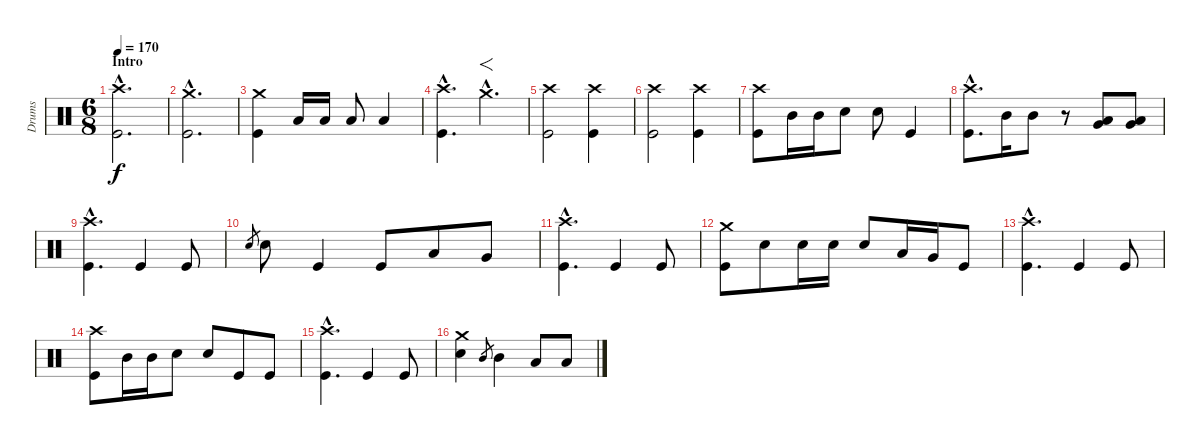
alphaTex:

\track ("Drums" "Drums") {instrument percussion}
\staff {score}
\articulation defaults
\ts (6 8)
\section ("" "Intro")
\tempo 170
\clef neutral
\ks c
("Crash high (hit)"{hac} "Kick (hit)"{hac}).2{d dy f} |
("Crash medium (hit)"{hac} "Kick (hit)"{hac}).2{d} |
("Crash medium (hit)" "Kick (hit)").4 "Low Tom (hit)".16 "Low Tom (hit)".16 "Low Tom (hit)".8 "Low Tom (hit)".4 |
("Crash high (hit)"{hac} "Kick (hit)"{hac}).4{d} "Crash medium (hit)"{hac}.4{f d} |
("Crash high (hit)" "Kick (hit)").2 ("Crash high (hit)" "Kick (hit)").4 |
("Crash high (hit)" "Kick (hit)").2 ("Crash high (hit)" "Kick (hit)").4 |
("Crash high (hit)" "Kick (hit)").8 "Mid Tom (hit)".16 "Mid Tom (hit)".16 "Electric Snare (hit)".8 "Electric Snare (hit)".8 "Kick (hit)".4 |
("Crash high (hit)"{hac} "Kick (hit)"{hac}).8{d} "Mid Tom (hit)".16 "Mid Tom (hit)".8 r.8 ("Low Tom (hit)" "Very Low Tom (hit)").8 ("Low Tom (hit)" "Very Low Tom (hit)").8 |
("Crash high (hit)"{hac} "Kick (hit)"{hac}).4{d} "Kick (hit)".4 "Kick (hit)".8 |
"Electric Snare (hit)".8{gr} "Electric Snare (hit)".8 "Kick (hit)".4 "Kick (hit)".8 "Low Tom (hit)".8 "Very Low Tom (hit)".8 |
("Crash high (hit)"{hac} "Kick (hit)"{hac}).4{d} "Kick (hit)".4 "Kick (hit)".8 |
("Crash medium (hit)" "Kick (hit)").8 "Electric Snare (hit)".8 "Electric Snare (hit)".16 "Electric Snare (hit)".16 "Electric Snare (hit)".8 "Low Tom (hit)".16 "Very Low Tom (hit)".16 "Kick (hit)".8 |
("Crash high (hit)"{hac} "Kick (hit)"{hac}).4{d} "Kick (hit)".4 "Kick (hit)".8 |
("Crash high (hit)" "Kick (hit)").8 "Mid Tom (hit)".16 "Mid Tom (hit)".16 "Electric Snare (hit)".8 "Electric Snare (hit)".8 "Kick (hit)".8 "Kick (hit)".8 |
("Crash high (hit)"{hac} "Kick (hit)"{hac}).4{d} "Kick (hit)".4 "Kick (hit)".8 |
("Crash medium (hit)" "Electric Snare (hit)").4 "Mid Tom (hit)".8{gr} "Mid Tom (hit)".4 "Low Tom (hit)".8 "Low Tom (hit)".8
